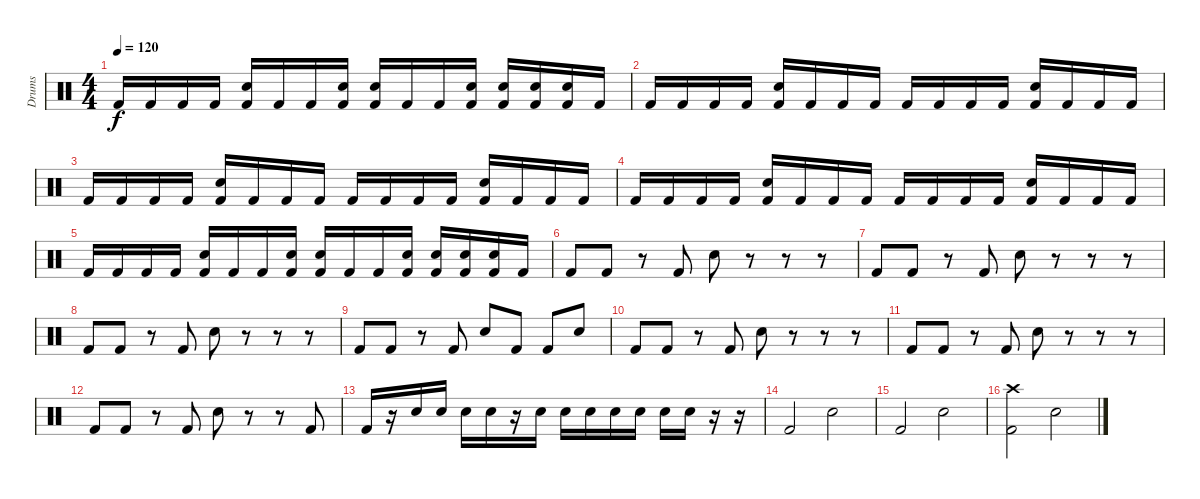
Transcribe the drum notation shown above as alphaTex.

\track ("Drums" "Drums") {instrument percussion}
\staff {score}
\articulation defaults
\ts (4 4)
\tempo 120
\clef neutral
\ks c "Kick (hit) 2".16{dy f} "Kick (hit) 2".16 "Kick (hit) 2".16 "Kick (hit) 2".16
("Kick (hit) 2" "Electric Snare (hit)").16 "Kick (hit) 2".16 "Kick (hit) 2".16 ("Kick (hit) 2" "Electric Snare (hit)").16 ("Kick (hit) 2" "Electric Snare (hit)").16 "Kick (hit) 2".16 "Kick (hit) 2".16 ("Kick (hit) 2" "Electric Snare (hit)").16 ("Kick (hit) 2" "Electric Snare (hit)").16 ("Kick (hit) 2" "Electric Snare (hit)").16 ("Kick (hit) 2" "Electric Snare (hit)").16 "Kick (hit) 2".16 |
"Kick (hit) 2".16 "Kick (hit) 2".16 "Kick (hit) 2".16 "Kick (hit) 2".16 ("Kick (hit) 2" "Electric Snare (hit)").16 "Kick (hit) 2".16 "Kick (hit) 2".16 "Kick (hit) 2".16 "Kick (hit) 2".16 "Kick (hit) 2".16 "Kick (hit) 2".16 "Kick (hit) 2".16 ("Kick (hit) 2" "Electric Snare (hit)").16 "Kick (hit) 2".16 "Kick (hit) 2".16 "Kick (hit) 2".16 |
"Kick (hit) 2".16 "Kick (hit) 2".16 "Kick (hit) 2".16 "Kick (hit) 2".16 ("Kick (hit) 2" "Electric Snare (hit)").16 "Kick (hit) 2".16 "Kick (hit) 2".16 "Kick (hit) 2".16 "Kick (hit) 2".16 "Kick (hit) 2".16 "Kick (hit) 2".16 "Kick (hit) 2".16 ("Kick (hit) 2" "Electric Snare (hit)").16 "Kick (hit) 2".16 "Kick (hit) 2".16 "Kick (hit) 2".16 |
"Kick (hit) 2".16 "Kick (hit) 2".16 "Kick (hit) 2".16 "Kick (hit) 2".16 ("Kick (hit) 2" "Electric Snare (hit)").16 "Kick (hit) 2".16 "Kick (hit) 2".16 "Kick (hit) 2".16 "Kick (hit) 2".16 "Kick (hit) 2".16 "Kick (hit) 2".16 "Kick (hit) 2".16 ("Kick (hit) 2" "Electric Snare (hit)").16 "Kick (hit) 2".16 "Kick (hit) 2".16 "Kick (hit) 2".16 |
"Kick (hit) 2".16 "Kick (hit) 2".16 "Kick (hit) 2".16 "Kick (hit) 2".16 ("Kick (hit) 2" "Electric Snare (hit)").16 "Kick (hit) 2".16 "Kick (hit) 2".16 ("Kick (hit) 2" "Electric Snare (hit)").16 ("Kick (hit) 2" "Electric Snare (hit)").16 "Kick (hit) 2".16 "Kick (hit) 2".16 ("Kick (hit) 2" "Electric Snare (hit)").16 ("Kick (hit) 2" "Electric Snare (hit)").16 ("Kick (hit) 2" "Electric Snare (hit)").16 ("Kick (hit) 2" "Electric Snare (hit)").16 "Kick (hit) 2".16 |
"Kick (hit) 2".8 "Kick (hit) 2".8 r.8 "Kick (hit) 2".8 "Electric Snare (hit)".8 r.8 r.8 r.8 |
"Kick (hit) 2".8 "Kick (hit) 2".8 r.8 "Kick (hit) 2".8 "Electric Snare (hit)".8 r.8 r.8 r.8 |
"Kick (hit) 2".8 "Kick (hit) 2".8 r.8 "Kick (hit) 2".8 "Electric Snare (hit)".8 r.8 r.8 r.8 |
"Kick (hit) 2".8 "Kick (hit) 2".8 r.8 "Kick (hit) 2".8 "Electric Snare (hit)".8 "Kick (hit) 2".8 "Kick (hit) 2".8 "Electric Snare (hit)".8 |
"Kick (hit) 2".8 "Kick (hit) 2".8 r.8 "Kick (hit) 2".8 "Electric Snare (hit)".8 r.8 r.8 r.8 |
"Kick (hit) 2".8 "Kick (hit) 2".8 r.8 "Kick (hit) 2".8 "Electric Snare (hit)".8 r.8 r.8 r.8 |
"Kick (hit) 2".8 "Kick (hit) 2".8 r.8 "Kick (hit) 2".8 "Electric Snare (hit)".8 r.8 r.8 "Kick (hit) 2".8 |
"Kick (hit) 2".16 r.16 "Electric Snare (hit)".16 "Electric Snare (hit)".16 "Electric Snare (hit)".16 "Electric Snare (hit)".16 r.16 "Electric Snare (hit)".16 "Electric Snare (hit)".16 "Electric Snare (hit)".16 "Electric Snare (hit)".16 "Electric Snare (hit)".16 "Electric Snare (hit)".16 "Electric Snare (hit)".16 r.16 r.16 |
"Kick (hit) 2".2 "Electric Snare (hit)".2 |
"Kick (hit) 2".2 "Electric Snare (hit)".2 |
("Kick (hit) 2" "Crash high (hit)").2 "Electric Snare (hit)".2
